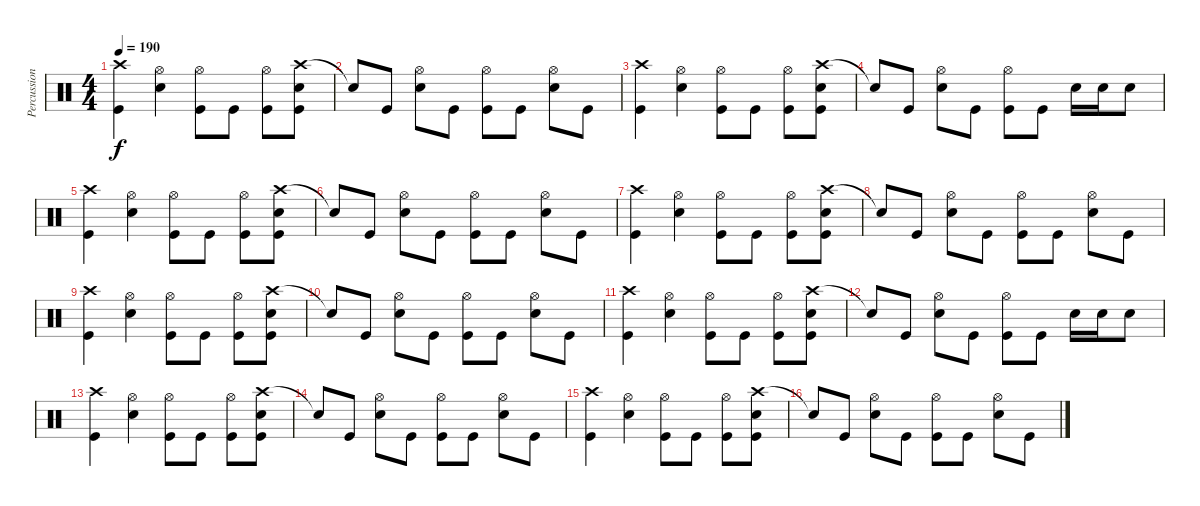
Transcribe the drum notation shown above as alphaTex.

\track ("Percussion" "Percussion") {instrument percussion}
\staff {score}
\articulation defaults
\ts (4 4)
\tempo 190
\clef neutral
\ks c
("Crash high (hit)" "Kick (hit)").4{dy f} ("Hi-Hat (open)" "Snare (hit) 2").4 ("Hi-Hat (open)" "Kick (hit)").8 "Kick (hit)".8 ("Hi-Hat (open)" "Kick (hit)").8 ("Crash high (hit)" "Snare (hit) 2" "Kick (hit)").8 |
"Snare (hit)"{t}.8 "Kick (hit)".8 ("Hi-Hat (open)" "Snare (hit) 2").8 "Kick (hit)".8 ("Hi-Hat (open)" "Kick (hit)").8 "Kick (hit)".8 ("Hi-Hat (open)" "Snare (hit) 2").8 "Kick (hit)".8 |
("Crash high (hit)" "Kick (hit)").4 ("Hi-Hat (open)" "Snare (hit) 2").4 ("Hi-Hat (open)" "Kick (hit)").8 "Kick (hit)".8 ("Hi-Hat (open)" "Kick (hit)").8 ("Crash high (hit)" "Snare (hit) 2" "Kick (hit)").8 |
"Snare (hit)"{t}.8 "Kick (hit)".8 ("Hi-Hat (open)" "Snare (hit) 2").8 "Kick (hit)".8 ("Hi-Hat (open)" "Kick (hit)").8 "Kick (hit)".8 "Snare (hit) 2".16 "Snare (hit) 2".16 "Snare (hit) 2".8 |
("Crash high (hit)" "Kick (hit)").4 ("Hi-Hat (open)" "Snare (hit) 2").4 ("Hi-Hat (open)" "Kick (hit)").8 "Kick (hit)".8 ("Hi-Hat (open)" "Kick (hit)").8 ("Crash high (hit)" "Snare (hit) 2" "Kick (hit)").8 |
"Snare (hit)"{t}.8 "Kick (hit)".8 ("Hi-Hat (open)" "Snare (hit) 2").8 "Kick (hit)".8 ("Hi-Hat (open)" "Kick (hit)").8 "Kick (hit)".8 ("Hi-Hat (open)" "Snare (hit) 2").8 "Kick (hit)".8 |
("Crash high (hit)" "Kick (hit)").4 ("Hi-Hat (open)" "Snare (hit) 2").4 ("Hi-Hat (open)" "Kick (hit)").8 "Kick (hit)".8 ("Hi-Hat (open)" "Kick (hit)").8 ("Crash high (hit)" "Snare (hit) 2" "Kick (hit)").8 |
"Snare (hit)"{t}.8 "Kick (hit)".8 ("Hi-Hat (open)" "Snare (hit) 2").8 "Kick (hit)".8 ("Hi-Hat (open)" "Kick (hit)").8 "Kick (hit)".8 ("Hi-Hat (open)" "Snare (hit) 2").8 "Kick (hit)".8 |
("Crash high (hit)" "Kick (hit)").4 ("Hi-Hat (open)" "Snare (hit) 2").4 ("Hi-Hat (open)" "Kick (hit)").8 "Kick (hit)".8 ("Hi-Hat (open)" "Kick (hit)").8 ("Crash high (hit)" "Snare (hit) 2" "Kick (hit)").8 |
"Snare (hit)"{t}.8 "Kick (hit)".8 ("Hi-Hat (open)" "Snare (hit) 2").8 "Kick (hit)".8 ("Hi-Hat (open)" "Kick (hit)").8 "Kick (hit)".8 ("Hi-Hat (open)" "Snare (hit) 2").8 "Kick (hit)".8 |
("Crash high (hit)" "Kick (hit)").4 ("Hi-Hat (open)" "Snare (hit) 2").4 ("Hi-Hat (open)" "Kick (hit)").8 "Kick (hit)".8 ("Hi-Hat (open)" "Kick (hit)").8 ("Crash high (hit)" "Snare (hit) 2" "Kick (hit)").8 |
"Snare (hit)"{t}.8 "Kick (hit)".8 ("Hi-Hat (open)" "Snare (hit) 2").8 "Kick (hit)".8 ("Hi-Hat (open)" "Kick (hit)").8 "Kick (hit)".8 "Snare (hit) 2".16 "Snare (hit) 2".16 "Snare (hit) 2".8 |
("Crash high (hit)" "Kick (hit)").4 ("Hi-Hat (open)" "Snare (hit) 2").4 ("Hi-Hat (open)" "Kick (hit)").8 "Kick (hit)".8 ("Hi-Hat (open)" "Kick (hit)").8 ("Crash high (hit)" "Snare (hit) 2" "Kick (hit)").8 |
"Snare (hit)"{t}.8 "Kick (hit)".8 ("Hi-Hat (open)" "Snare (hit) 2").8 "Kick (hit)".8 ("Hi-Hat (open)" "Kick (hit)").8 "Kick (hit)".8 ("Hi-Hat (open)" "Snare (hit) 2").8 "Kick (hit)".8 |
("Crash high (hit)" "Kick (hit)").4 ("Hi-Hat (open)" "Snare (hit) 2").4 ("Hi-Hat (open)" "Kick (hit)").8 "Kick (hit)".8 ("Hi-Hat (open)" "Kick (hit)").8 ("Crash high (hit)" "Snare (hit) 2" "Kick (hit)").8 |
"Snare (hit)"{t}.8 "Kick (hit)".8 ("Hi-Hat (open)" "Snare (hit) 2").8 "Kick (hit)".8 ("Hi-Hat (open)" "Kick (hit)").8 "Kick (hit)".8 ("Hi-Hat (open)" "Snare (hit) 2").8 "Kick (hit)".8
